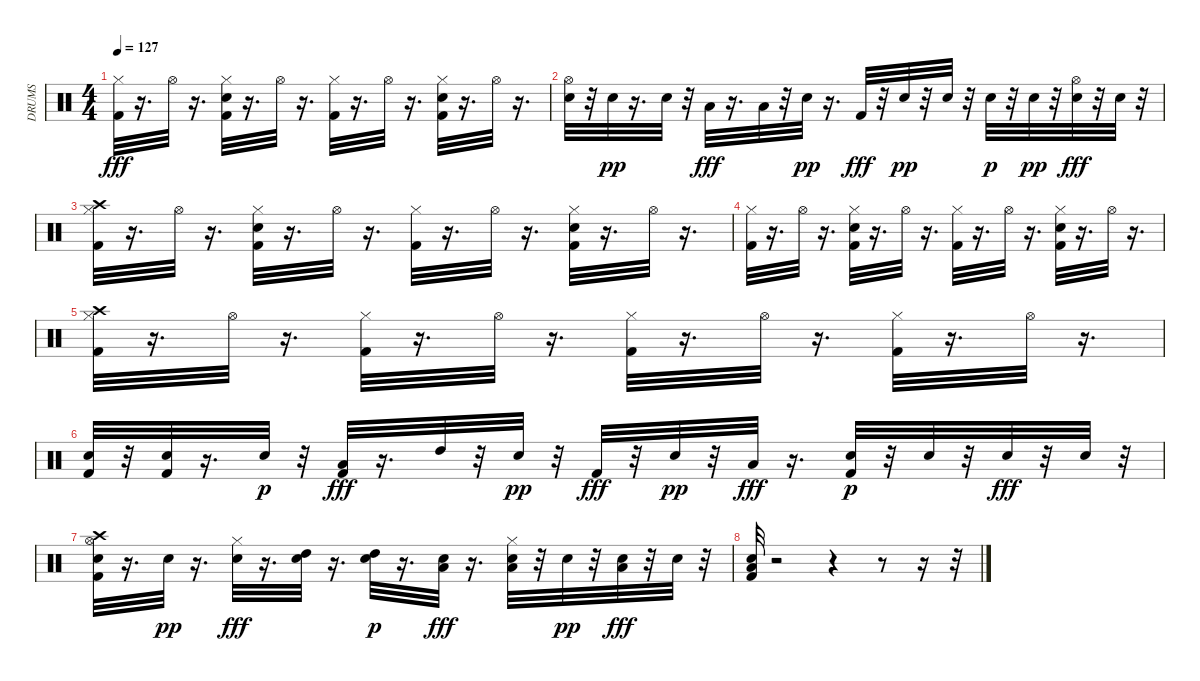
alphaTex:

\track ("DRUMS" "DRUMS") {instrument percussion}
\staff {score}
\articulation defaults
\ts (4 4)
\tempo 127
\clef neutral
\ks c
("Hi-Hat (closed)" "Kick (hit) 2").32{dy fff} r.16{d} "Hi-Hat (open)".32 r.16{d} ("Kick (hit) 2" "Hi-Hat (closed)" "Snare (hit) 2").32 r.16{d} "Hi-Hat (open)".32 r.16{d} ("Hi-Hat (closed)" "Kick (hit) 2").32 r.16{d} "Hi-Hat (open)".32 r.16{d} ("Hi-Hat (closed)" "Snare (hit) 2" "Kick (hit) 2").32 r.16{d} "Hi-Hat (open)".32 r.16{d} |
("Hi-Hat (open)" "Snare (hit) 2").32 r.32 "Snare (hit) 2".32{dy pp} r.16{d} "Snare (hit) 2".32 r.32 "Low Floor Tom (hit)".32{dy fff} r.16{d} "Low Tom (hit)".32 r.32 "Snare (hit) 2".32{dy pp} r.16{d} "Kick (hit) 2".32{dy fff} r.32 "Snare (hit) 2".32{dy pp} r.32 "Snare (hit) 2".32 r.32 "Snare (hit) 2".32{dy p} r.32 "Snare (hit) 2".32{dy pp} r.32 ("Hi-Hat (open)" "Snare (hit) 2").32{dy fff} r.32 "Snare (hit) 2".32 r.32 |
("Crash high (hit)" "Hi-Hat (closed)" "Kick (hit) 2").32 r.16{d} "Hi-Hat (open)".32 r.16{d} ("Kick (hit) 2" "Hi-Hat (closed)" "Snare (hit) 2").32 r.16{d} "Hi-Hat (open)".32 r.16{d} ("Hi-Hat (closed)" "Kick (hit) 2").32 r.16{d} "Hi-Hat (open)".32 r.16{d} ("Kick (hit) 2" "Hi-Hat (closed)" "Snare (hit) 2").32 r.16{d} "Hi-Hat (open)".32 r.16{d} |
("Hi-Hat (closed)" "Kick (hit) 2").32 r.16{d} "Hi-Hat (open)".32 r.16{d} ("Kick (hit) 2" "Hi-Hat (closed)" "Snare (hit) 2").32 r.16{d} "Hi-Hat (open)".32 r.16{d} ("Kick (hit) 2" "Hi-Hat (closed)").32 r.16{d} "Hi-Hat (open)".32 r.16{d} ("Kick (hit) 2" "Hi-Hat (closed)" "Snare (hit) 2").32 r.16{d} "Hi-Hat (open)".32 r.16{d} |
("Crash high (hit)" "Hi-Hat (closed)" "Kick (hit) 2").32 r.16{d} "Hi-Hat (open)".32 r.16{d} ("Kick (hit) 2" "Hi-Hat (closed)").32 r.16{d} "Hi-Hat (open)".32 r.16{d} ("Hi-Hat (closed)" "Kick (hit) 2").32 r.16{d} "Hi-Hat (open)".32 r.16{d} ("Hi-Hat (closed)" "Kick (hit) 2").32 r.16{d} "Hi-Hat (open)".32 r.16{d} |
("Snare (hit) 2" "Kick (hit) 2").32 r.32 ("Snare (hit) 2" "Kick (hit) 2").32 r.16{d} "Snare (hit) 2".32{dy p} r.32 ("Low Tom (hit)" "Kick (hit) 2").32{dy fff} r.16{d} "High Tom (hit)".32 r.32 "Snare (hit) 2".32{dy pp} r.32 "Kick (hit) 2".32{dy fff} r.32 "Snare (hit) 2".32{dy pp} r.32 "Low Floor Tom (hit)".32{dy fff} r.16{d} ("Kick (hit) 2" "Snare (hit) 2").32{dy p} r.32 "Snare (hit) 2".32 r.32 "Snare (hit) 2".32{dy fff} r.32 "Snare (hit) 2".32 r.32 |
("Crash high (hit)" "Hi-Hat (open)" "Snare (hit) 2" "Kick (hit) 2").32 r.16{d} "Snare (hit) 2".32{dy pp} r.16{d} ("Snare (hit) 2" "Hi-Hat (closed)").32{dy fff} r.16{d} ("Snare (hit) 2" "High Tom (hit)").32 r.16{d} ("High Tom (hit)" "Snare (hit) 2").32{dy p} r.16{d} ("Low Tom (hit)" "Snare (hit) 2").32{dy fff} r.16{d} ("Snare (hit) 2" "Low Floor Tom (hit)" "Hi-Hat (closed)").32 r.32 "Snare (hit) 2".32{dy pp} r.32 ("Snare (hit) 2" "Low Floor Tom (hit)").32{dy fff} r.32 "Snare (hit) 2".32 r.32 |
("Low Floor Tom (hit)" "Snare (hit) 2" "Kick (hit) 2").32 r.2 r.4 r.8 r.16 r.32
